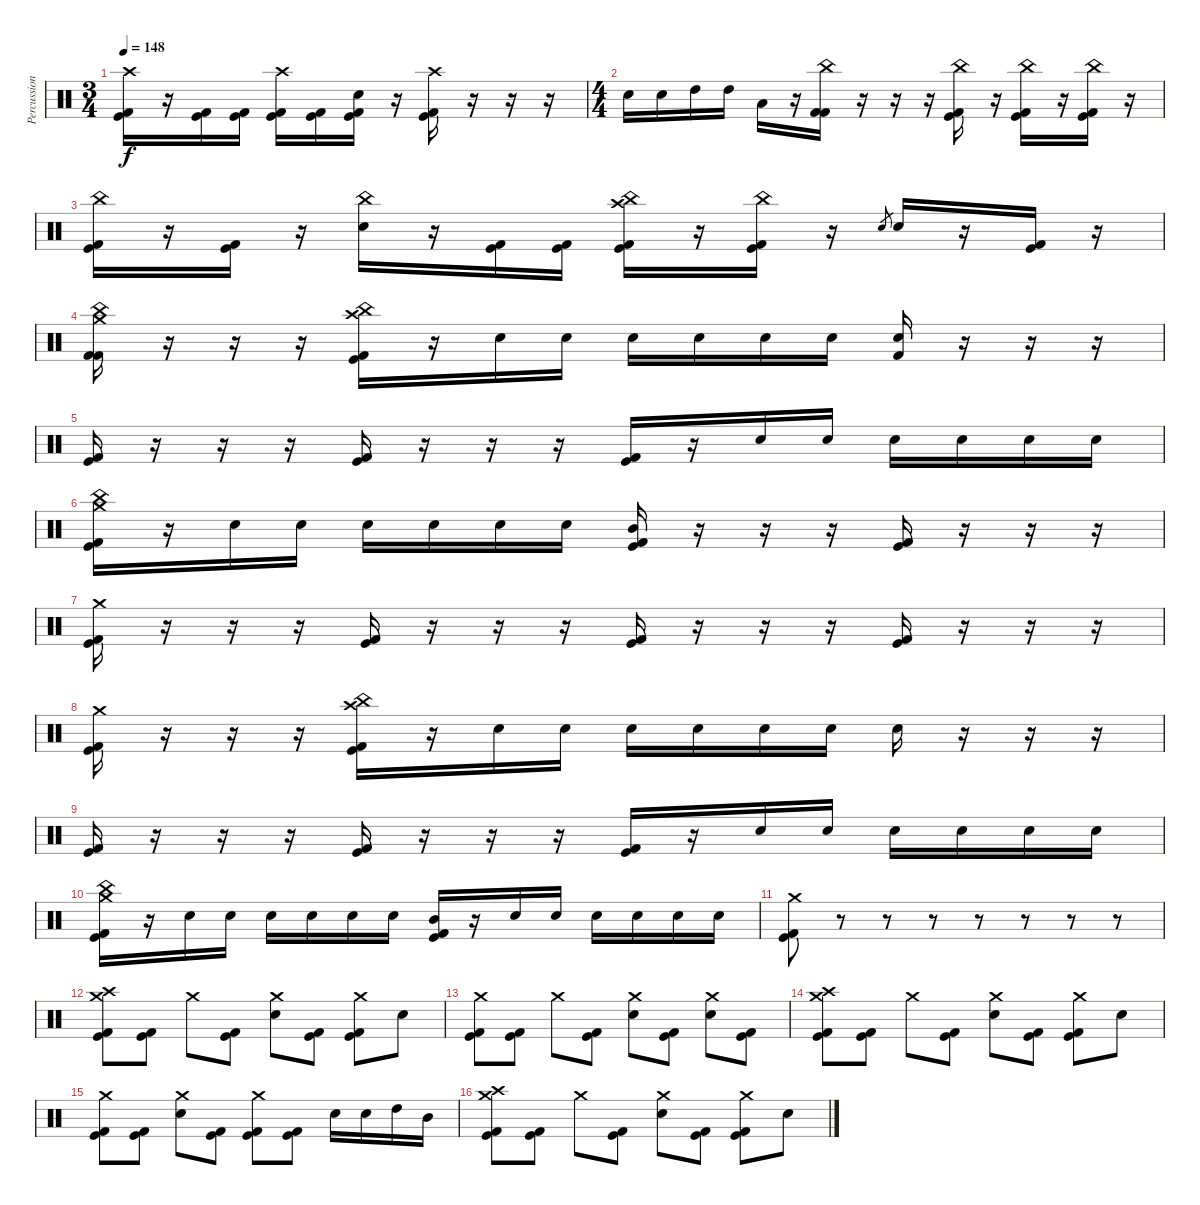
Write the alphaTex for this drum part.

\track ("Percussioni" "Percussion") {instrument percussion}
\staff {score}
\articulation defaults
\ts (3 4)
\tempo 148
\clef neutral
\ks c
("Crash high (hit)" "Kick (hit)" "Kick (hit) 2").16{dy f} r.16 ("Kick (hit)" "Kick (hit) 2").16 ("Kick (hit)" "Kick (hit) 2").16 ("Crash high (hit)" "Kick (hit)" "Kick (hit) 2").16 ("Kick (hit)" "Kick (hit) 2").16 ("Snare (hit) 2" "Kick (hit)" "Kick (hit) 2").16 r.16 ("Crash high (hit)" "Kick (hit)" "Kick (hit) 2").16 r.16 r.16 r.16 |
\ts (4 4)
"Snare (hit) 2".16 "Snare (hit) 2".16 "High Tom (hit)".16 "High Tom (hit)".16 "Low Tom (hit)".16 r.16 ("China (hit)" "Kick (hit) 2" "Kick (hit) 2").16 r.16 r.16 r.16 ("China (hit)" "Kick (hit)" "Kick (hit) 2").16 r.16 ("China (hit)" "Kick (hit)" "Kick (hit) 2").16 r.16 ("China (hit)" "Kick (hit)" "Kick (hit) 2").16 r.16 |
("China (hit)" "Kick (hit)" "Kick (hit) 2").16 r.16 ("Kick (hit)" "Kick (hit) 2").16 r.16 ("China (hit)" "Snare (hit) 2").16 r.16 ("Kick (hit)" "Kick (hit) 2").16 ("Kick (hit)" "Kick (hit) 2").16 ("Crash high (hit)" "China (hit)" "Kick (hit)" "Kick (hit) 2").16 r.16 ("China (hit)" "Kick (hit)" "Kick (hit) 2").16 r.16 "Snare (hit) 2".8{gr} "Snare (hit) 2".16 r.16 ("Kick (hit)" "Kick (hit) 2").16 r.16 |
("Crash medium (hit)" "China (hit)" "Kick (hit) 2" "Kick (hit) 2").16 r.16 r.16 r.16 ("Crash high (hit)" "China (hit)" "Kick (hit)" "Kick (hit) 2").16 r.16 "Snare (hit) 2".16 "Snare (hit) 2".16 "Snare (hit) 2".16 "Snare (hit) 2".16 "Snare (hit) 2".16 "Snare (hit) 2".16 ("Snare (hit) 2" "Kick (hit) 2").16 r.16 r.16 r.16 |
("Kick (hit)" "Kick (hit) 2").16 r.16 r.16 r.16 ("Kick (hit) 2" "Kick (hit)").16 r.16 r.16 r.16 ("Kick (hit)" "Kick (hit) 2").16 r.16 "Snare (hit) 2".16 "Snare (hit) 2".16 "Snare (hit) 2".16 "Snare (hit) 2".16 "Snare (hit) 2".16 "Snare (hit) 2".16 |
("Crash medium (hit)" "China (hit)" "Kick (hit) 2" "Kick (hit)").16 r.16 "Snare (hit) 2".16 "Snare (hit) 2".16 "Snare (hit) 2".16 "Snare (hit) 2".16 "Snare (hit) 2".16 "Snare (hit) 2".16 ("Mid Tom (hit)" "Kick (hit)" "Kick (hit) 2").16 r.16 r.16 r.16 ("Kick (hit)" "Kick (hit) 2").16 r.16 r.16 r.16 |
("Crash medium (hit)" "Kick (hit)" "Kick (hit) 2").16 r.16 r.16 r.16 ("Kick (hit) 2" "Kick (hit)").16 r.16 r.16 r.16 ("Kick (hit) 2" "Kick (hit)").16 r.16 r.16 r.16 ("Kick (hit) 2" "Kick (hit)").16 r.16 r.16 r.16 |
("Crash medium (hit)" "Kick (hit) 2" "Kick (hit)").16 r.16 r.16 r.16 ("Crash high (hit)" "China (hit)" "Kick (hit)" "Kick (hit) 2").16 r.16 "Snare (hit) 2".16 "Snare (hit) 2".16 "Snare (hit) 2".16 "Snare (hit) 2".16 "Snare (hit) 2".16 "Snare (hit) 2".16 "Snare (hit) 2".16 r.16 r.16 r.16 |
("Kick (hit)" "Kick (hit) 2").16 r.16 r.16 r.16 ("Kick (hit)" "Kick (hit) 2").16 r.16 r.16 r.16 ("Kick (hit)" "Kick (hit) 2").16 r.16 "Snare (hit) 2".16 "Snare (hit) 2".16 "Snare (hit) 2".16 "Snare (hit) 2".16 "Snare (hit) 2".16 "Snare (hit) 2".16 |
("Crash medium (hit)" "China (hit)" "Kick (hit) 2" "Kick (hit)").16 r.16 "Snare (hit) 2".16 "Snare (hit) 2".16 "Snare (hit) 2".16 "Snare (hit) 2".16 "Snare (hit) 2".16 "Snare (hit) 2".16 ("Mid Tom (hit)" "Kick (hit)" "Kick (hit) 2").16 r.16 "Snare (hit) 2".16 "Snare (hit) 2".16 "Snare (hit) 2".16 "Snare (hit) 2".16 "Snare (hit) 2".16 "Snare (hit) 2".16 |
("Crash medium (hit)" "Kick (hit)" "Kick (hit) 2").8 r.8 r.8 r.8 r.8 r.8 r.8 r.8 |
("Crash high (hit)" "Crash medium (hit)" "Kick (hit)" "Kick (hit) 2").8 ("Kick (hit)" "Kick (hit) 2").8 "Crash medium (hit)".8 ("Kick (hit)" "Kick (hit) 2").8 ("Crash medium (hit)" "Snare (hit) 2").8 ("Kick (hit)" "Kick (hit) 2").8 ("Crash medium (hit)" "Kick (hit) 2" "Kick (hit)").8 "Snare (hit) 2".8 |
("Crash medium (hit)" "Kick (hit)" "Kick (hit) 2").8 ("Kick (hit)" "Kick (hit) 2").8 "Crash medium (hit)".8 ("Kick (hit)" "Kick (hit) 2").8 ("Crash medium (hit)" "Snare (hit) 2").8 ("Kick (hit)" "Kick (hit) 2").8 ("Crash medium (hit)" "Snare (hit) 2").8 ("Kick (hit)" "Kick (hit) 2").8 |
("Crash high (hit)" "Crash medium (hit)" "Kick (hit)" "Kick (hit) 2").8 ("Kick (hit)" "Kick (hit) 2").8 "Crash medium (hit)".8 ("Kick (hit)" "Kick (hit) 2").8 ("Crash medium (hit)" "Snare (hit) 2").8 ("Kick (hit)" "Kick (hit) 2").8 ("Crash medium (hit)" "Kick (hit) 2" "Kick (hit)").8 "Snare (hit) 2".8 |
("Crash medium (hit)" "Kick (hit)" "Kick (hit) 2").8 ("Kick (hit)" "Kick (hit) 2").8 ("Crash medium (hit)" "Snare (hit) 2").8 ("Kick (hit)" "Kick (hit) 2").8 ("Crash medium (hit)" "Kick (hit)" "Kick (hit) 2").8 ("Kick (hit)" "Kick (hit) 2").8 "Snare (hit) 2".16 "Snare (hit) 2".16 "High Tom (hit)".16 "Mid Tom (hit)".16 |
("Crash high (hit)" "Crash medium (hit)" "Kick (hit)" "Kick (hit) 2").8 ("Kick (hit)" "Kick (hit) 2").8 "Crash medium (hit)".8 ("Kick (hit)" "Kick (hit) 2").8 ("Crash medium (hit)" "Snare (hit) 2").8 ("Kick (hit)" "Kick (hit) 2").8 ("Crash medium (hit)" "Kick (hit) 2" "Kick (hit)").8 "Snare (hit) 2".8
